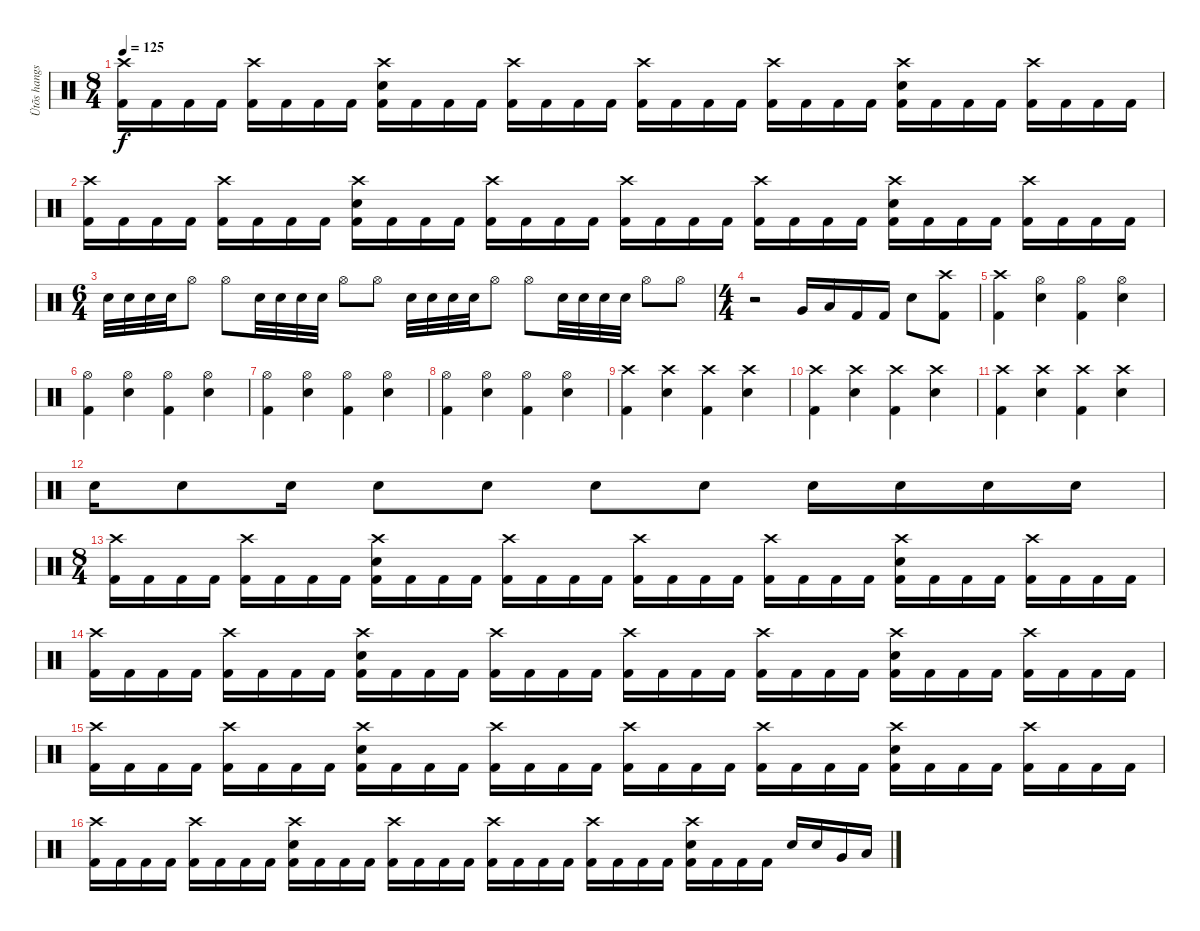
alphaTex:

\track ("Ütõs hangszer" "Ütõs hangs") {instrument percussion}
\staff {score}
\articulation defaults
\ts (8 4)
\tempo 125
\clef neutral
\ks c
("Crash high (hit)" "Kick (hit) 2").16{dy f} "Kick (hit) 2".16 "Kick (hit) 2".16 "Kick (hit) 2".16 ("Crash high (hit)" "Kick (hit) 2").16 "Kick (hit) 2".16 "Kick (hit) 2".16 "Kick (hit) 2".16 ("Crash high (hit)" "Electric Snare (hit)" "Kick (hit) 2").16 "Kick (hit) 2".16 "Kick (hit) 2".16 "Kick (hit) 2".16 ("Crash high (hit)" "Kick (hit) 2").16 "Kick (hit) 2".16 "Kick (hit) 2".16 "Kick (hit) 2".16 ("Crash high (hit)" "Kick (hit) 2").16 "Kick (hit) 2".16 "Kick (hit) 2".16 "Kick (hit) 2".16 ("Crash high (hit)" "Kick (hit) 2").16 "Kick (hit) 2".16 "Kick (hit) 2".16 "Kick (hit) 2".16 ("Crash high (hit)" "Electric Snare (hit)" "Kick (hit) 2").16 "Kick (hit) 2".16 "Kick (hit) 2".16 "Kick (hit) 2".16 ("Crash high (hit)" "Kick (hit) 2").16 "Kick (hit) 2".16 "Kick (hit) 2".16 "Kick (hit) 2".16 |
("Crash high (hit)" "Kick (hit) 2").16 "Kick (hit) 2".16 "Kick (hit) 2".16 "Kick (hit) 2".16 ("Crash high (hit)" "Kick (hit) 2").16 "Kick (hit) 2".16 "Kick (hit) 2".16 "Kick (hit) 2".16 ("Crash high (hit)" "Electric Snare (hit)" "Kick (hit) 2").16 "Kick (hit) 2".16 "Kick (hit) 2".16 "Kick (hit) 2".16 ("Crash high (hit)" "Kick (hit) 2").16 "Kick (hit) 2".16 "Kick (hit) 2".16 "Kick (hit) 2".16 ("Crash high (hit)" "Kick (hit) 2").16 "Kick (hit) 2".16 "Kick (hit) 2".16 "Kick (hit) 2".16 ("Crash high (hit)" "Kick (hit) 2").16 "Kick (hit) 2".16 "Kick (hit) 2".16 "Kick (hit) 2".16 ("Crash high (hit)" "Electric Snare (hit)" "Kick (hit) 2").16 "Kick (hit) 2".16 "Kick (hit) 2".16 "Kick (hit) 2".16 ("Crash high (hit)" "Kick (hit) 2").16 "Kick (hit) 2".16 "Kick (hit) 2".16 "Kick (hit) 2".16 |
\ts (6 4)
"Electric Snare (hit)".32 "Electric Snare (hit)".32 "Electric Snare (hit)".32 "Electric Snare (hit)".32 "Hi-Hat (open)".8 "Hi-Hat (open)".8 "Electric Snare (hit)".32 "Electric Snare (hit)".32 "Electric Snare (hit)".32 "Electric Snare (hit)".32 "Hi-Hat (open)".8 "Hi-Hat (open)".8 "Electric Snare (hit)".32 "Electric Snare (hit)".32 "Electric Snare (hit)".32 "Electric Snare (hit)".32 "Hi-Hat (open)".8 "Hi-Hat (open)".8 "Electric Snare (hit)".32 "Electric Snare (hit)".32 "Electric Snare (hit)".32 "Electric Snare (hit)".32 "Hi-Hat (open)".8 "Hi-Hat (open)".8 |
\ts (4 4)
r.2 "Very Low Tom (hit)".16 "Low Tom (hit)".16 "Kick (hit) 2".16 "Kick (hit) 2".16 "Electric Snare (hit)".8 ("Crash high (hit)" "Kick (hit) 2").8 |
("Crash high (hit)" "Kick (hit) 2").4 ("Hi-Hat (open)" "Electric Snare (hit)").4 ("Hi-Hat (open)" "Kick (hit) 2").4 ("Hi-Hat (open)" "Electric Snare (hit)").4 |
("Hi-Hat (open)" "Kick (hit) 2").4 ("Hi-Hat (open)" "Electric Snare (hit)").4 ("Hi-Hat (open)" "Kick (hit) 2").4 ("Hi-Hat (open)" "Electric Snare (hit)").4 |
("Hi-Hat (open)" "Kick (hit) 2").4 ("Hi-Hat (open)" "Electric Snare (hit)").4 ("Hi-Hat (open)" "Kick (hit) 2").4 ("Hi-Hat (open)" "Electric Snare (hit)").4 |
("Hi-Hat (open)" "Kick (hit) 2").4 ("Hi-Hat (open)" "Electric Snare (hit)").4 ("Hi-Hat (open)" "Kick (hit) 2").4 ("Hi-Hat (open)" "Electric Snare (hit)").4 |
("Crash high (hit)" "Kick (hit) 2").4 ("Crash high (hit)" "Electric Snare (hit)").4 ("Crash high (hit)" "Kick (hit) 2").4 ("Crash high (hit)" "Electric Snare (hit)").4 |
("Crash high (hit)" "Kick (hit) 2").4 ("Crash high (hit)" "Electric Snare (hit)").4 ("Crash high (hit)" "Kick (hit) 2").4 ("Crash high (hit)" "Electric Snare (hit)").4 |
("Crash high (hit)" "Kick (hit) 2").4 ("Crash high (hit)" "Electric Snare (hit)").4 ("Crash high (hit)" "Kick (hit) 2").4 ("Crash high (hit)" "Electric Snare (hit)").4 |
"Electric Snare (hit)".16 "Electric Snare (hit)".8 "Electric Snare (hit)".16 "Electric Snare (hit)".8 "Electric Snare (hit)".8 "Electric Snare (hit)".8 "Electric Snare (hit)".8 "Electric Snare (hit)".16 "Electric Snare (hit)".16 "Electric Snare (hit)".16 "Electric Snare (hit)".16 |
\ts (8 4)
("Crash high (hit)" "Kick (hit) 2").16 "Kick (hit) 2".16 "Kick (hit) 2".16 "Kick (hit) 2".16 ("Crash high (hit)" "Kick (hit) 2").16 "Kick (hit) 2".16 "Kick (hit) 2".16 "Kick (hit) 2".16 ("Crash high (hit)" "Electric Snare (hit)" "Kick (hit) 2").16 "Kick (hit) 2".16 "Kick (hit) 2".16 "Kick (hit) 2".16 ("Crash high (hit)" "Kick (hit) 2").16 "Kick (hit) 2".16 "Kick (hit) 2".16 "Kick (hit) 2".16 ("Crash high (hit)" "Kick (hit) 2").16 "Kick (hit) 2".16 "Kick (hit) 2".16 "Kick (hit) 2".16 ("Crash high (hit)" "Kick (hit) 2").16 "Kick (hit) 2".16 "Kick (hit) 2".16 "Kick (hit) 2".16 ("Crash high (hit)" "Electric Snare (hit)" "Kick (hit) 2").16 "Kick (hit) 2".16 "Kick (hit) 2".16 "Kick (hit) 2".16 ("Crash high (hit)" "Kick (hit) 2").16 "Kick (hit) 2".16 "Kick (hit) 2".16 "Kick (hit) 2".16 |
("Crash high (hit)" "Kick (hit) 2").16 "Kick (hit) 2".16 "Kick (hit) 2".16 "Kick (hit) 2".16 ("Crash high (hit)" "Kick (hit) 2").16 "Kick (hit) 2".16 "Kick (hit) 2".16 "Kick (hit) 2".16 ("Crash high (hit)" "Electric Snare (hit)" "Kick (hit) 2").16 "Kick (hit) 2".16 "Kick (hit) 2".16 "Kick (hit) 2".16 ("Crash high (hit)" "Kick (hit) 2").16 "Kick (hit) 2".16 "Kick (hit) 2".16 "Kick (hit) 2".16 ("Crash high (hit)" "Kick (hit) 2").16 "Kick (hit) 2".16 "Kick (hit) 2".16 "Kick (hit) 2".16 ("Crash high (hit)" "Kick (hit) 2").16 "Kick (hit) 2".16 "Kick (hit) 2".16 "Kick (hit) 2".16 ("Crash high (hit)" "Electric Snare (hit)" "Kick (hit) 2").16 "Kick (hit) 2".16 "Kick (hit) 2".16 "Kick (hit) 2".16 ("Crash high (hit)" "Kick (hit) 2").16 "Kick (hit) 2".16 "Kick (hit) 2".16 "Kick (hit) 2".16 |
("Crash high (hit)" "Kick (hit) 2").16 "Kick (hit) 2".16 "Kick (hit) 2".16 "Kick (hit) 2".16 ("Crash high (hit)" "Kick (hit) 2").16 "Kick (hit) 2".16 "Kick (hit) 2".16 "Kick (hit) 2".16 ("Crash high (hit)" "Electric Snare (hit)" "Kick (hit) 2").16 "Kick (hit) 2".16 "Kick (hit) 2".16 "Kick (hit) 2".16 ("Crash high (hit)" "Kick (hit) 2").16 "Kick (hit) 2".16 "Kick (hit) 2".16 "Kick (hit) 2".16 ("Crash high (hit)" "Kick (hit) 2").16 "Kick (hit) 2".16 "Kick (hit) 2".16 "Kick (hit) 2".16 ("Crash high (hit)" "Kick (hit) 2").16 "Kick (hit) 2".16 "Kick (hit) 2".16 "Kick (hit) 2".16 ("Crash high (hit)" "Electric Snare (hit)" "Kick (hit) 2").16 "Kick (hit) 2".16 "Kick (hit) 2".16 "Kick (hit) 2".16 ("Crash high (hit)" "Kick (hit) 2").16 "Kick (hit) 2".16 "Kick (hit) 2".16 "Kick (hit) 2".16 |
("Crash high (hit)" "Kick (hit) 2").16 "Kick (hit) 2".16 "Kick (hit) 2".16 "Kick (hit) 2".16 ("Crash high (hit)" "Kick (hit) 2").16 "Kick (hit) 2".16 "Kick (hit) 2".16 "Kick (hit) 2".16 ("Crash high (hit)" "Electric Snare (hit)" "Kick (hit) 2").16 "Kick (hit) 2".16 "Kick (hit) 2".16 "Kick (hit) 2".16 ("Crash high (hit)" "Kick (hit) 2").16 "Kick (hit) 2".16 "Kick (hit) 2".16 "Kick (hit) 2".16 ("Crash high (hit)" "Kick (hit) 2").16 "Kick (hit) 2".16 "Kick (hit) 2".16 "Kick (hit) 2".16 ("Crash high (hit)" "Kick (hit) 2").16 "Kick (hit) 2".16 "Kick (hit) 2".16 "Kick (hit) 2".16 ("Crash high (hit)" "Electric Snare (hit)" "Kick (hit) 2").16 "Kick (hit) 2".16 "Kick (hit) 2".16 "Kick (hit) 2".16 "Electric Snare (hit)".16 "Electric Snare (hit)".16 "Very Low Tom (hit)".16 "Low Tom (hit)".16
